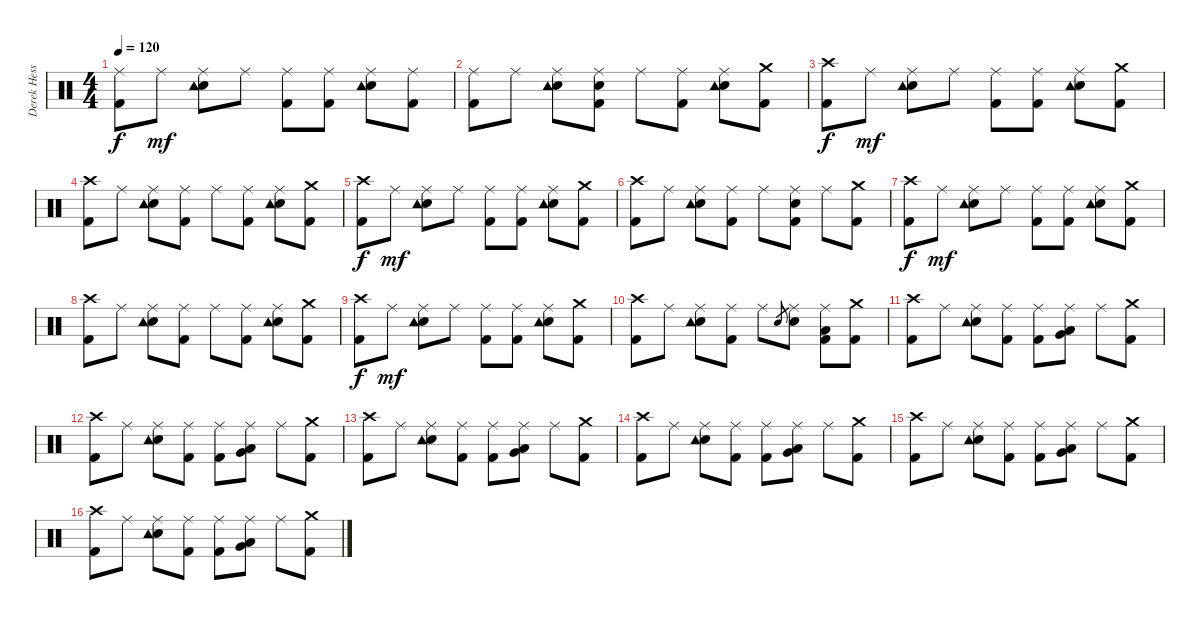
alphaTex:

\track ("Derek Hess (Drums and Percussion)" "Derek Hess") {instrument percussion}
\staff {score}
\articulation defaults
\ts (4 4)
\tempo 120
\clef neutral
\ks c
("Ride (middle)" "Kick (hit) 2").8{dy f} "Ride (middle)".8{dy mf} ("Ride (middle)" "Snare (hit) 2" "Tambourine (hit)").8 "Ride (middle)".8 ("Ride (middle)" "Kick (hit) 2").8 ("Ride (middle)" "Kick (hit) 2").8 ("Ride (middle)" "Snare (hit) 2" "Tambourine (hit)").8 ("Ride (middle)" "Kick (hit) 2").8 |
("Ride (middle)" "Kick (hit) 2").8 "Ride (middle)".8 ("Ride (middle)" "Snare (hit) 2" "Tambourine (hit)").8 ("Ride (middle)" "Snare (hit) 2" "Kick (hit) 2").8 "Ride (middle)".8 ("Ride (middle)" "Kick (hit) 2").8 ("Ride (middle)" "Snare (hit) 2" "Tambourine (hit)").8 ("Crash medium (hit)" "Kick (hit) 2").8 |
("Crash high (hit)" "Kick (hit) 2").8{dy f} "Ride (middle)".8{dy mf} ("Ride (middle)" "Snare (hit) 2" "Tambourine (hit)").8 "Ride (middle)".8 ("Ride (middle)" "Kick (hit) 2").8 ("Ride (middle)" "Kick (hit) 2").8 ("Ride (middle)" "Snare (hit) 2" "Tambourine (hit)").8 ("Crash medium (hit)" "Kick (hit) 2").8 |
("Crash high (hit)" "Kick (hit) 2").8 "Ride (middle)".8 ("Ride (middle)" "Snare (hit) 2" "Tambourine (hit)").8 ("Ride (middle)" "Kick (hit) 2").8 "Ride (middle)".8 ("Ride (middle)" "Kick (hit) 2").8 ("Ride (middle)" "Snare (hit) 2" "Tambourine (hit)").8 ("Crash medium (hit)" "Kick (hit) 2").8 |
("Crash high (hit)" "Kick (hit) 2").8{dy f} "Ride (middle)".8{dy mf} ("Ride (middle)" "Snare (hit) 2" "Tambourine (hit)").8 "Ride (middle)".8 ("Ride (middle)" "Kick (hit) 2").8 ("Ride (middle)" "Kick (hit) 2").8 ("Ride (middle)" "Snare (hit) 2" "Tambourine (hit)").8 ("Crash medium (hit)" "Kick (hit) 2").8 |
("Crash high (hit)" "Kick (hit) 2").8 "Ride (middle)".8 ("Ride (middle)" "Snare (hit) 2" "Tambourine (hit)").8 ("Ride (middle)" "Kick (hit) 2").8 "Ride (middle)".8 ("Ride (middle)" "Snare (hit) 2" "Kick (hit) 2").8 "Ride (middle)".8 ("Crash medium (hit)" "Kick (hit) 2").8 |
("Crash high (hit)" "Kick (hit) 2").8{dy f} "Ride (middle)".8{dy mf} ("Ride (middle)" "Snare (hit) 2" "Tambourine (hit)").8 "Ride (middle)".8 ("Ride (middle)" "Kick (hit) 2").8 ("Ride (middle)" "Kick (hit) 2").8 ("Ride (middle)" "Snare (hit) 2" "Tambourine (hit)").8 ("Crash medium (hit)" "Kick (hit) 2").8 |
("Crash high (hit)" "Kick (hit) 2").8 "Ride (middle)".8 ("Ride (middle)" "Snare (hit) 2" "Tambourine (hit)").8 ("Ride (middle)" "Kick (hit) 2").8 "Ride (middle)".8 ("Ride (middle)" "Kick (hit) 2").8 ("Ride (middle)" "Snare (hit) 2" "Tambourine (hit)").8 ("Crash medium (hit)" "Kick (hit) 2").8 |
("Crash high (hit)" "Kick (hit) 2").8{dy f} "Ride (middle)".8{dy mf} ("Ride (middle)" "Snare (hit) 2" "Tambourine (hit)").8 "Ride (middle)".8 ("Ride (middle)" "Kick (hit) 2").8 ("Ride (middle)" "Kick (hit) 2").8 ("Ride (middle)" "Snare (hit) 2" "Tambourine (hit)").8 ("Crash medium (hit)" "Kick (hit) 2").8 |
("Crash high (hit)" "Kick (hit) 2").8 "Ride (middle)".8 ("Ride (middle)" "Snare (hit) 2" "Tambourine (hit)").8 ("Ride (middle)" "Kick (hit) 2").8 "Ride (middle)".8 "Snare (hit) 2".8{gr} ("Ride (middle)" "Snare (hit) 2").8 ("Ride (middle)" "Low Tom (hit)" "Kick (hit) 2").8 ("Crash medium (hit)" "Kick (hit) 2").8 |
("Crash high (hit)" "Kick (hit) 2").8 "Ride (middle)".8 ("Ride (middle)" "Snare (hit) 2" "Tambourine (hit)").8 ("Ride (middle)" "Kick (hit) 2").8 ("Ride (middle)" "Kick (hit) 2").8 ("Ride (middle)" "Low Tom (hit)" "Very Low Tom (hit)").8 "Ride (middle)".8 ("Crash medium (hit)" "Kick (hit) 2").8 |
("Crash high (hit)" "Kick (hit) 2").8 "Ride (middle)".8 ("Ride (middle)" "Snare (hit) 2" "Tambourine (hit)").8 ("Ride (middle)" "Kick (hit) 2").8 ("Ride (middle)" "Kick (hit) 2").8 ("Ride (middle)" "Low Tom (hit)" "Very Low Tom (hit)").8 "Ride (middle)".8 ("Crash medium (hit)" "Kick (hit) 2").8 |
("Crash high (hit)" "Kick (hit) 2").8 "Ride (middle)".8 ("Ride (middle)" "Snare (hit) 2" "Tambourine (hit)").8 ("Ride (middle)" "Kick (hit) 2").8 ("Ride (middle)" "Kick (hit) 2").8 ("Ride (middle)" "Low Tom (hit)" "Very Low Tom (hit)").8 "Ride (middle)".8 ("Crash medium (hit)" "Kick (hit) 2").8 |
("Crash high (hit)" "Kick (hit) 2").8 "Ride (middle)".8 ("Ride (middle)" "Snare (hit) 2" "Tambourine (hit)").8 ("Ride (middle)" "Kick (hit) 2").8 ("Ride (middle)" "Kick (hit) 2").8 ("Ride (middle)" "Low Tom (hit)" "Very Low Tom (hit)").8 "Ride (middle)".8 ("Crash medium (hit)" "Kick (hit) 2").8 |
("Crash high (hit)" "Kick (hit) 2").8 "Ride (middle)".8 ("Ride (middle)" "Snare (hit) 2" "Tambourine (hit)").8 ("Ride (middle)" "Kick (hit) 2").8 ("Ride (middle)" "Kick (hit) 2").8 ("Ride (middle)" "Low Tom (hit)" "Very Low Tom (hit)").8 "Ride (middle)".8 ("Crash medium (hit)" "Kick (hit) 2").8 |
("Crash high (hit)" "Kick (hit) 2").8 "Ride (middle)".8 ("Ride (middle)" "Snare (hit) 2" "Tambourine (hit)").8 ("Ride (middle)" "Kick (hit) 2").8 ("Ride (middle)" "Kick (hit) 2").8 ("Ride (middle)" "Low Tom (hit)" "Very Low Tom (hit)").8 "Ride (middle)".8 ("Crash medium (hit)" "Kick (hit) 2").8
